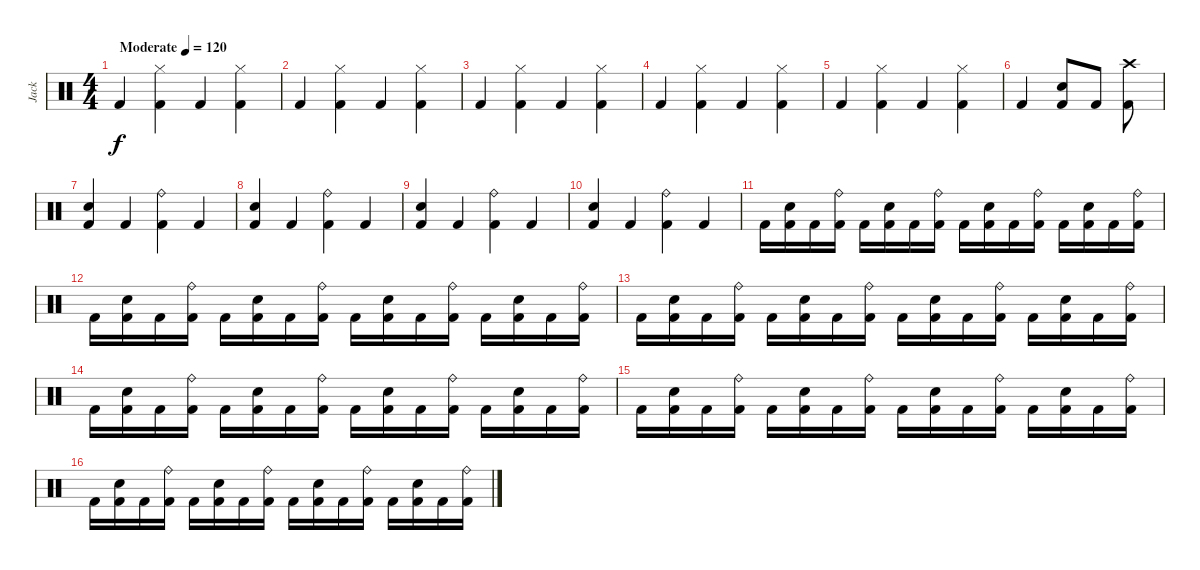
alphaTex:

\track ("Jack" "Jack") {instrument percussion}
\staff {score}
\articulation defaults
\ts (4 4)
\tempo (120 "Moderate")
\clef neutral
\ks c "Kick (hit) 2".4{dy f}
("Kick (hit) 2" "Hi-Hat (closed)").4 "Kick (hit) 2".4 ("Kick (hit) 2" "Hi-Hat (closed)").4 |
"Kick (hit) 2".4 ("Kick (hit) 2" "Hi-Hat (closed)").4 "Kick (hit) 2".4 ("Kick (hit) 2" "Hi-Hat (closed)").4 |
"Kick (hit) 2".4 ("Kick (hit) 2" "Hi-Hat (closed)").4 "Kick (hit) 2".4 ("Kick (hit) 2" "Hi-Hat (closed)").4 |
"Kick (hit) 2".4 ("Kick (hit) 2" "Hi-Hat (closed)").4 "Kick (hit) 2".4 ("Kick (hit) 2" "Hi-Hat (closed)").4 |
"Kick (hit) 2".4 ("Kick (hit) 2" "Hi-Hat (closed)").4 "Kick (hit) 2".4 ("Kick (hit) 2" "Hi-Hat (closed)").4 |
"Kick (hit) 2".4 ("Kick (hit) 2" "Snare (hit) 2").8 "Kick (hit) 2".8 ("Kick (hit) 2" "Crash high (hit)").8 |
("Kick (hit) 2" "Snare (hit) 2").4 "Kick (hit) 2".4 ("Kick (hit) 2" "Ride (bell)").4 "Kick (hit) 2".4 |
("Kick (hit) 2" "Snare (hit) 2").4 "Kick (hit) 2".4 ("Kick (hit) 2" "Ride (bell)").4 "Kick (hit) 2".4 |
("Kick (hit) 2" "Snare (hit) 2").4 "Kick (hit) 2".4 ("Kick (hit) 2" "Ride (bell)").4 "Kick (hit) 2".4 |
("Kick (hit) 2" "Snare (hit) 2").4 "Kick (hit) 2".4 ("Kick (hit) 2" "Ride (bell)").4 "Kick (hit) 2".4 |
"Kick (hit) 2".16 ("Kick (hit) 2" "Snare (hit) 2").16 "Kick (hit) 2".16 ("Kick (hit) 2" "Ride (bell)").16 "Kick (hit) 2".16 ("Kick (hit) 2" "Snare (hit) 2").16 "Kick (hit) 2".16 ("Kick (hit) 2" "Ride (bell)").16 "Kick (hit) 2".16 ("Kick (hit) 2" "Snare (hit) 2").16 "Kick (hit) 2".16 ("Kick (hit) 2" "Ride (bell)").16 "Kick (hit) 2".16 ("Kick (hit) 2" "Snare (hit) 2").16 "Kick (hit) 2".16 ("Kick (hit) 2" "Ride (bell)").16 |
"Kick (hit) 2".16 ("Kick (hit) 2" "Snare (hit) 2").16 "Kick (hit) 2".16 ("Kick (hit) 2" "Ride (bell)").16 "Kick (hit) 2".16 ("Kick (hit) 2" "Snare (hit) 2").16 "Kick (hit) 2".16 ("Kick (hit) 2" "Ride (bell)").16 "Kick (hit) 2".16 ("Kick (hit) 2" "Snare (hit) 2").16 "Kick (hit) 2".16 ("Kick (hit) 2" "Ride (bell)").16 "Kick (hit) 2".16 ("Kick (hit) 2" "Snare (hit) 2").16 "Kick (hit) 2".16 ("Kick (hit) 2" "Ride (bell)").16 |
"Kick (hit) 2".16 ("Kick (hit) 2" "Snare (hit) 2").16 "Kick (hit) 2".16 ("Kick (hit) 2" "Ride (bell)").16 "Kick (hit) 2".16 ("Kick (hit) 2" "Snare (hit) 2").16 "Kick (hit) 2".16 ("Kick (hit) 2" "Ride (bell)").16 "Kick (hit) 2".16 ("Kick (hit) 2" "Snare (hit) 2").16 "Kick (hit) 2".16 ("Kick (hit) 2" "Ride (bell)").16 "Kick (hit) 2".16 ("Kick (hit) 2" "Snare (hit) 2").16 "Kick (hit) 2".16 ("Kick (hit) 2" "Ride (bell)").16 |
"Kick (hit) 2".16 ("Kick (hit) 2" "Snare (hit) 2").16 "Kick (hit) 2".16 ("Kick (hit) 2" "Ride (bell)").16 "Kick (hit) 2".16 ("Kick (hit) 2" "Snare (hit) 2").16 "Kick (hit) 2".16 ("Kick (hit) 2" "Ride (bell)").16 "Kick (hit) 2".16 ("Kick (hit) 2" "Snare (hit) 2").16 "Kick (hit) 2".16 ("Kick (hit) 2" "Ride (bell)").16 "Kick (hit) 2".16 ("Kick (hit) 2" "Snare (hit) 2").16 "Kick (hit) 2".16 ("Kick (hit) 2" "Ride (bell)").16 |
"Kick (hit) 2".16 ("Kick (hit) 2" "Snare (hit) 2").16 "Kick (hit) 2".16 ("Kick (hit) 2" "Ride (bell)").16 "Kick (hit) 2".16 ("Kick (hit) 2" "Snare (hit) 2").16 "Kick (hit) 2".16 ("Kick (hit) 2" "Ride (bell)").16 "Kick (hit) 2".16 ("Kick (hit) 2" "Snare (hit) 2").16 "Kick (hit) 2".16 ("Kick (hit) 2" "Ride (bell)").16 "Kick (hit) 2".16 ("Kick (hit) 2" "Snare (hit) 2").16 "Kick (hit) 2".16 ("Kick (hit) 2" "Ride (bell)").16 |
"Kick (hit) 2".16 ("Kick (hit) 2" "Snare (hit) 2").16 "Kick (hit) 2".16 ("Kick (hit) 2" "Ride (bell)").16 "Kick (hit) 2".16 ("Kick (hit) 2" "Snare (hit) 2").16 "Kick (hit) 2".16 ("Kick (hit) 2" "Ride (bell)").16 "Kick (hit) 2".16 ("Kick (hit) 2" "Snare (hit) 2").16 "Kick (hit) 2".16 ("Kick (hit) 2" "Ride (bell)").16 "Kick (hit) 2".16 ("Kick (hit) 2" "Snare (hit) 2").16 "Kick (hit) 2".16 ("Kick (hit) 2" "Ride (bell)").16
